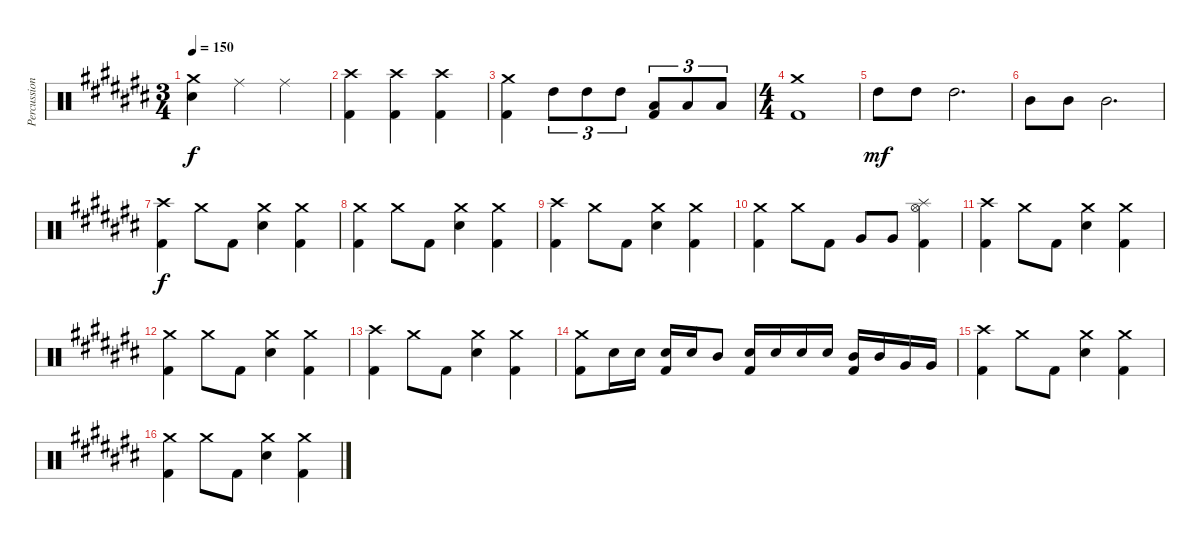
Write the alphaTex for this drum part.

\track ("Percussion" "Percussion") {instrument percussion}
\staff {score}
\articulation defaults
\ts (3 4)
\tempo 150
\clef neutral
\ks c#
("Crash medium (hit)" "Electric Snare (hit)").4{dy f} "Ride (middle)".4 "Ride (middle)".4 |
("Crash high (hit)" "Kick (hit) 2").4 ("Crash high (hit)" "Kick (hit) 2").4 ("Crash high (hit)" "Kick (hit) 2").4 |
("Crash medium (hit)" "Kick (hit) 2").4 "High Tom (hit)".8{tu (3 2)} "High Tom (hit)".8{tu (3 2)} "High Tom (hit)".8{tu (3 2)} ("Low Tom (hit)" "Kick (hit) 2").8{tu (3 2)} "Low Tom (hit)".8{tu (3 2)} "Low Tom (hit)".8{tu (3 2)} |
\ts (4 4)
("Crash medium (hit)" "Kick (hit) 2").1 |
"High Tom (hit)".8{dy mf} "High Tom (hit)".8 "High Tom (hit)".2{d} |
"Mid Tom (hit)".8 "Mid Tom (hit)".8 "Mid Tom (hit)".2{d} |
("Crash high (hit)" "Kick (hit) 2").4{dy f} "Crash medium (hit)".8 "Kick (hit) 2".8 ("Crash medium (hit)" "Electric Snare (hit)").4 ("Crash medium (hit)" "Kick (hit) 2").4 |
("Crash medium (hit)" "Kick (hit) 2").4 "Crash medium (hit)".8 "Kick (hit) 2".8 ("Crash medium (hit)" "Electric Snare (hit)").4 ("Crash medium (hit)" "Kick (hit) 2").4 |
("Crash high (hit)" "Kick (hit) 2").4 "Crash medium (hit)".8 "Kick (hit) 2".8 ("Crash medium (hit)" "Electric Snare (hit)").4 ("Crash medium (hit)" "Kick (hit) 2").4 |
("Crash medium (hit)" "Kick (hit) 2").4 "Crash medium (hit)".8 "Kick (hit) 2".8 "Very Low Tom (hit)".8 "Very Low Tom (hit)".8 ("Splash (hit)" "Hi-Hat (open)" "Kick (hit) 2").4 |
("Crash high (hit)" "Kick (hit) 2").4 "Crash medium (hit)".8 "Kick (hit) 2".8 ("Crash medium (hit)" "Electric Snare (hit)").4 ("Crash medium (hit)" "Kick (hit) 2").4 |
("Crash medium (hit)" "Kick (hit) 2").4 "Crash medium (hit)".8 "Kick (hit) 2".8 ("Crash medium (hit)" "Electric Snare (hit)").4 ("Crash medium (hit)" "Kick (hit) 2").4 |
("Crash high (hit)" "Kick (hit) 2").4 "Crash medium (hit)".8 "Kick (hit) 2".8 ("Crash medium (hit)" "Electric Snare (hit)").4 ("Crash medium (hit)" "Kick (hit) 2").4 |
("Crash medium (hit)" "Kick (hit) 2").8 "Electric Snare (hit)".16 "Electric Snare (hit)".16 ("Electric Snare (hit)" "Kick (hit) 2").16 "Electric Snare (hit)".16 "Mid Tom (hit)".8 ("Electric Snare (hit)" "Kick (hit) 2").16 "Electric Snare (hit)".16 "Electric Snare (hit)".16 "Electric Snare (hit)".16 ("Mid Tom (hit)" "Kick (hit) 2").16 "Mid Tom (hit)".16 "Very Low Tom (hit)".16 "Very Low Tom (hit)".16 |
("Crash high (hit)" "Kick (hit) 2").4 "Crash medium (hit)".8 "Kick (hit) 2".8 ("Crash medium (hit)" "Electric Snare (hit)").4 ("Crash medium (hit)" "Kick (hit) 2").4 |
("Crash medium (hit)" "Kick (hit) 2").4 "Crash medium (hit)".8 "Kick (hit) 2".8 ("Crash medium (hit)" "Electric Snare (hit)").4 ("Crash medium (hit)" "Kick (hit) 2").4
